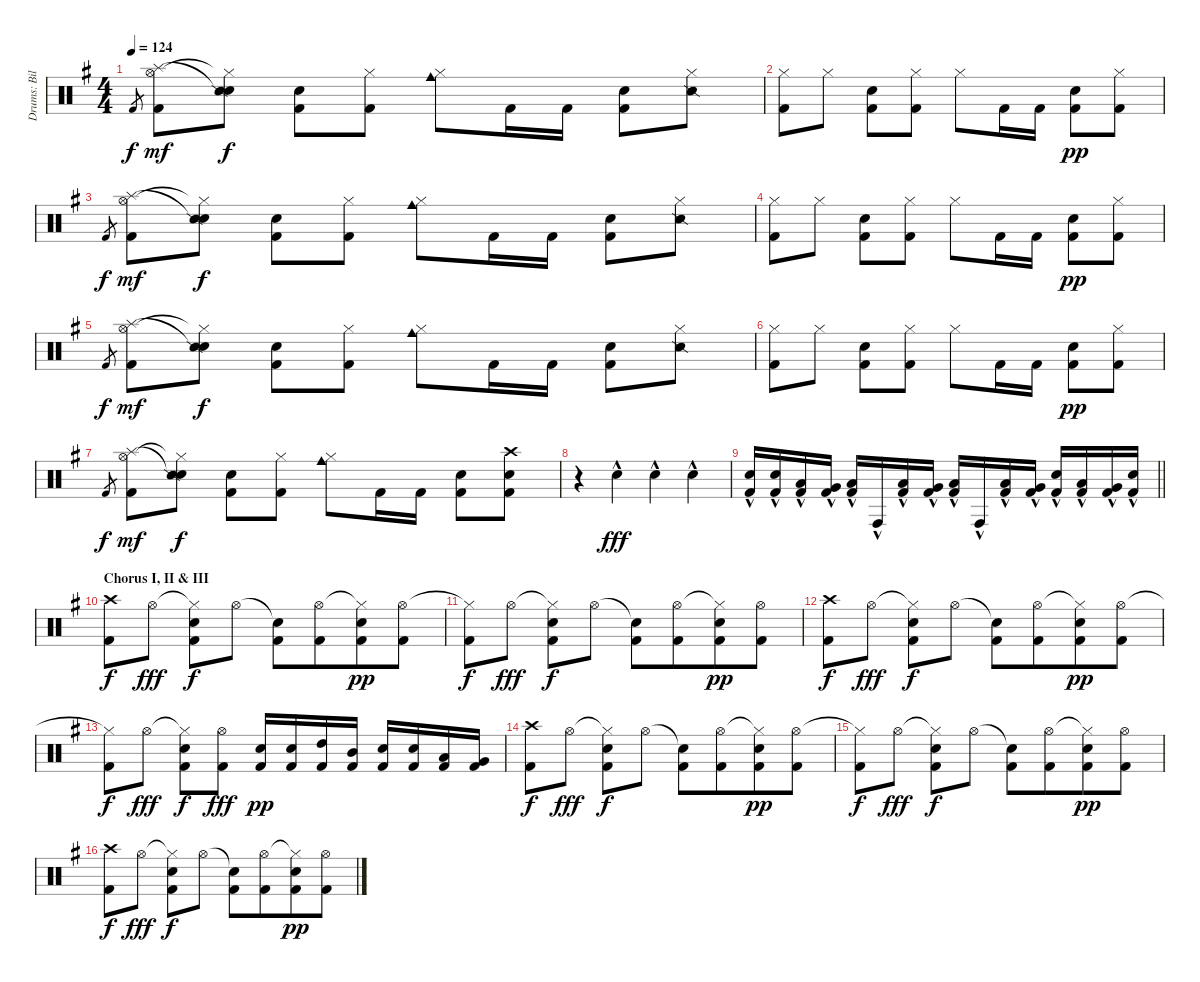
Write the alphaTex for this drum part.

\track ("Drums: Bill" "Drums: Bil") {instrument percussion}
\staff {score}
\articulation defaults
\ts (4 4)
\tempo 124
\clef neutral
\ks g "Kick (hit) 2".8{gr dy f}
("Splash (hit)" "Hi-Hat (open)" "Kick (hit) 2").8{dy mf} ("Snare (hit)"{t} "Hi-Hat (closed)"{t} "Snare (side stick) 2").8{dy f} ("Electric Snare (hit)" "Kick (hit) 2").8 ("Hi-Hat (closed)" "Kick (hit) 2").8 ("Hi-Hat (closed)" "Cowbell medium (hit)").8 "Kick (hit) 2".16 "Kick (hit) 2".16 ("Electric Snare (hit)" "Kick (hit) 2").8 ("Hi-Hat (closed)" "Snare (side stick) 2").8 |
("Hi-Hat (closed)" "Kick (hit) 2").8 "Hi-Hat (closed)".8 ("Electric Snare (hit)" "Kick (hit) 2").8 ("Hi-Hat (closed)" "Kick (hit) 2").8 "Hi-Hat (closed)".8 "Kick (hit) 2".16 "Kick (hit) 2".16 ("Electric Snare (hit)" "Kick (hit) 2").8{dy pp} ("Hi-Hat (closed)" "Kick (hit) 2").8 |
"Kick (hit) 2".8{gr dy f} ("Splash (hit)" "Hi-Hat (open)" "Kick (hit) 2").8{dy mf} ("Snare (hit)"{t} "Hi-Hat (closed)"{t} "Snare (side stick) 2").8{dy f} ("Electric Snare (hit)" "Kick (hit) 2").8 ("Hi-Hat (closed)" "Kick (hit) 2").8 ("Hi-Hat (closed)" "Cowbell medium (hit)").8 "Kick (hit) 2".16 "Kick (hit) 2".16 ("Electric Snare (hit)" "Kick (hit) 2").8 ("Hi-Hat (closed)" "Snare (side stick) 2").8 |
("Hi-Hat (closed)" "Kick (hit) 2").8 "Hi-Hat (closed)".8 ("Electric Snare (hit)" "Kick (hit) 2").8 ("Hi-Hat (closed)" "Kick (hit) 2").8 "Hi-Hat (closed)".8 "Kick (hit) 2".16 "Kick (hit) 2".16 ("Electric Snare (hit)" "Kick (hit) 2").8{dy pp} ("Hi-Hat (closed)" "Kick (hit) 2").8 |
"Kick (hit) 2".8{gr dy f} ("Splash (hit)" "Hi-Hat (open)" "Kick (hit) 2").8{dy mf} ("Snare (hit)"{t} "Hi-Hat (closed)"{t} "Snare (side stick) 2").8{dy f} ("Electric Snare (hit)" "Kick (hit) 2").8 ("Hi-Hat (closed)" "Kick (hit) 2").8 ("Hi-Hat (closed)" "Cowbell medium (hit)").8 "Kick (hit) 2".16 "Kick (hit) 2".16 ("Electric Snare (hit)" "Kick (hit) 2").8 ("Hi-Hat (closed)" "Snare (side stick) 2").8 |
("Hi-Hat (closed)" "Kick (hit) 2").8 "Hi-Hat (closed)".8 ("Electric Snare (hit)" "Kick (hit) 2").8 ("Hi-Hat (closed)" "Kick (hit) 2").8 "Hi-Hat (closed)".8 "Kick (hit) 2".16 "Kick (hit) 2".16 ("Electric Snare (hit)" "Kick (hit) 2").8{dy pp} ("Hi-Hat (closed)" "Kick (hit) 2").8 |
"Kick (hit) 2".8{gr dy f} ("Splash (hit)" "Hi-Hat (open)" "Kick (hit) 2").8{dy mf} ("Snare (hit)"{t} "Hi-Hat (closed)"{t} "Snare (side stick) 2").8{dy f} ("Electric Snare (hit)" "Kick (hit) 2").8 ("Hi-Hat (closed)" "Kick (hit) 2").8 ("Hi-Hat (closed)" "Cowbell medium (hit)").8 "Kick (hit) 2".16 "Kick (hit) 2".16 ("Electric Snare (hit)" "Kick (hit) 2").8 ("Crash high (hit)" "Electric Snare (hit)" "Kick (hit) 2").8 |
r.4 "Electric Snare (hit)"{hac}.4{dy fff} "Electric Snare (hit)"{hac}.4 "Electric Snare (hit)"{hac}.4 |
\barLineRight lightlight
("Electric Snare (hit)"{hac} "Kick (hit) 2"{hac}).16 ("Electric Snare (hit)"{hac} "Kick (hit) 2"{hac}).16 ("Low Tom (hit)"{hac} "Kick (hit) 2"{hac}).16 ("Very Low Tom (hit)"{hac} "Kick (hit) 2"{hac}).16 ("Low Floor Tom (hit)"{hac} "Kick (hit) 2"{hac}).16 "Conga high (hit)"{hac}.16 ("Low Tom (hit)"{hac} "Kick (hit) 2"{hac}).16 ("Very Low Tom (hit)"{hac} "Kick (hit) 2"{hac}).16 ("Low Floor Tom (hit)"{hac} "Kick (hit) 2"{hac}).16 "Conga high (hit)"{hac}.16 ("Low Tom (hit)"{hac} "Kick (hit) 2"{hac}).16 ("Very Low Tom (hit)"{hac} "Kick (hit) 2"{hac}).16 ("Electric Snare (hit)"{hac} "Kick (hit) 2"{hac}).16 ("Low Tom (hit)"{hac} "Kick (hit) 2"{hac}).16 ("Very Low Tom (hit)"{hac} "Kick (hit) 2"{hac}).16 ("Electric Snare (hit)"{hac} "Kick (hit) 2"{hac}).16 |
\section ("" "Chorus I, II & III")
("Crash high (hit)" "Kick (hit) 2").8{dy f} "Hi-Hat (open)".8{dy fff} ("Hi-Hat (closed)"{t} "Electric Snare (hit)" "Kick (hit) 2").8{dy f} "Hi-Hat (open)".8 ("Snare (hit)"{t} "Kick (hit) 2").8 ("Hi-Hat (open)" "Kick (hit) 2").8{beam merge} ("Hi-Hat (closed)"{t} "Electric Snare (hit)" "Kick (hit) 2").8{dy pp} ("Hi-Hat (open)" "Kick (hit) 2").8 |
("Hi-Hat (closed)"{t} "Kick (hit) 2").8{dy f} "Hi-Hat (open)".8{dy fff} ("Hi-Hat (closed)"{t} "Electric Snare (hit)" "Kick (hit) 2").8{dy f} "Hi-Hat (open)".8 ("Snare (hit)"{t} "Kick (hit) 2").8 ("Hi-Hat (open)" "Kick (hit) 2").8{beam merge} ("Hi-Hat (closed)"{t} "Electric Snare (hit)" "Kick (hit) 2").8{dy pp} ("Hi-Hat (open)" "Kick (hit) 2").8 |
("Crash high (hit)" "Kick (hit) 2").8{dy f} "Hi-Hat (open)".8{dy fff} ("Hi-Hat (closed)"{t} "Electric Snare (hit)" "Kick (hit) 2").8{dy f} "Hi-Hat (open)".8 ("Snare (hit)"{t} "Kick (hit) 2").8 ("Hi-Hat (open)" "Kick (hit) 2").8{beam merge} ("Hi-Hat (closed)"{t} "Electric Snare (hit)" "Kick (hit) 2").8{dy pp} ("Hi-Hat (open)" "Kick (hit) 2").8 |
("Hi-Hat (closed)"{t} "Kick (hit) 2").8{dy f} "Hi-Hat (open)".8{dy fff} ("Hi-Hat (closed)"{t} "Electric Snare (hit)" "Kick (hit) 2").8{dy f} ("Hi-Hat (open)" "Kick (hit) 2").8{dy fff} ("Electric Snare (hit)" "Kick (hit) 2").16{dy pp} ("Electric Snare (hit)" "Kick (hit) 2").16 ("High Tom (hit)" "Kick (hit) 2").16 ("Mid Tom (hit)" "Kick (hit) 2").16 ("Electric Snare (hit)" "Kick (hit) 2").16 ("Electric Snare (hit)" "Kick (hit) 2").16 ("Low Tom (hit)" "Kick (hit) 2").16 ("Very Low Tom (hit)" "Kick (hit) 2").16 |
("Crash high (hit)" "Kick (hit) 2").8{dy f} "Hi-Hat (open)".8{dy fff} ("Hi-Hat (closed)"{t} "Electric Snare (hit)" "Kick (hit) 2").8{dy f} "Hi-Hat (open)".8 ("Snare (hit)"{t} "Kick (hit) 2").8 ("Hi-Hat (open)" "Kick (hit) 2").8{beam merge} ("Hi-Hat (closed)"{t} "Electric Snare (hit)" "Kick (hit) 2").8{dy pp} ("Hi-Hat (open)" "Kick (hit) 2").8 |
("Hi-Hat (closed)"{t} "Kick (hit) 2").8{dy f} "Hi-Hat (open)".8{dy fff} ("Hi-Hat (closed)"{t} "Electric Snare (hit)" "Kick (hit) 2").8{dy f} "Hi-Hat (open)".8 ("Snare (hit)"{t} "Kick (hit) 2").8 ("Hi-Hat (open)" "Kick (hit) 2").8{beam merge} ("Hi-Hat (closed)"{t} "Electric Snare (hit)" "Kick (hit) 2").8{dy pp} ("Hi-Hat (open)" "Kick (hit) 2").8 |
("Crash high (hit)" "Kick (hit) 2").8{dy f} "Hi-Hat (open)".8{dy fff} ("Hi-Hat (closed)"{t} "Electric Snare (hit)" "Kick (hit) 2").8{dy f} "Hi-Hat (open)".8 ("Snare (hit)"{t} "Kick (hit) 2").8 ("Hi-Hat (open)" "Kick (hit) 2").8{beam merge} ("Hi-Hat (closed)"{t} "Electric Snare (hit)" "Kick (hit) 2").8{dy pp} ("Hi-Hat (open)" "Kick (hit) 2").8
